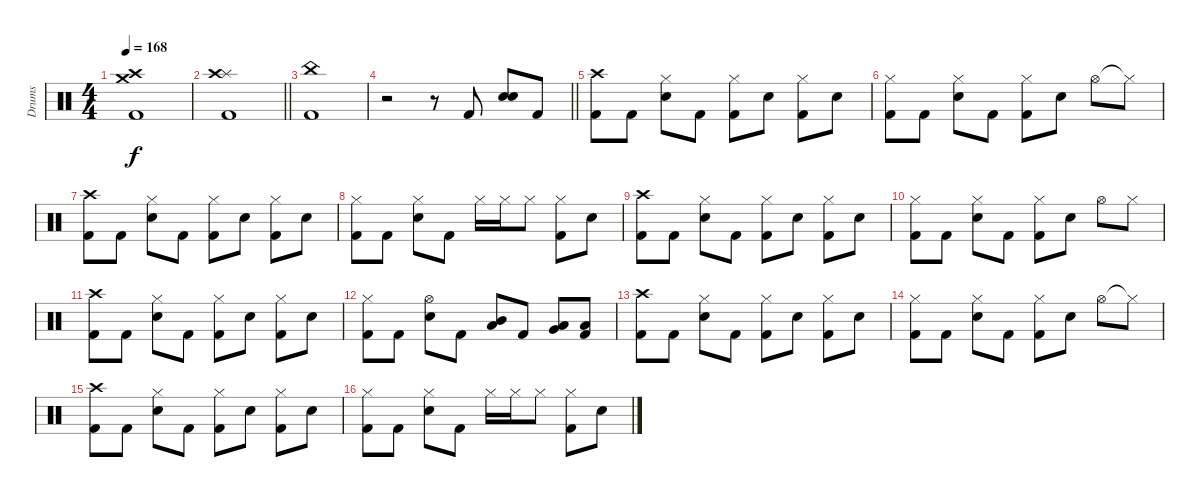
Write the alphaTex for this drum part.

\track ("Drums" "Drums") {instrument percussion}
\staff {score}
\articulation defaults
\ts (4 4)
\tempo 168
\clef neutral
\ks c
("Crash medium (hit)" "Crash high (hit)" "Kick (hit) 2").1{dy f} |
\barLineRight lightlight
("Splash (hit)" "Crash high (hit)" "Kick (hit) 2").1 |
("China (hit)" "Kick (hit) 2").1 |
\barLineRight lightlight
r.2 r.8 "Kick (hit) 2".8 ("Electric Snare (hit)" "Electric Snare (hit)").8 "Kick (hit) 2".8 |
\section ("" "")
("Crash high (hit)" "Kick (hit) 2").8 "Kick (hit) 2".8 ("Hi-Hat (closed)" "Electric Snare (hit)").8 "Kick (hit) 2".8 ("Hi-Hat (closed)" "Kick (hit) 2").8 "Electric Snare (hit)".8 ("Hi-Hat (closed)" "Kick (hit) 2").8 "Electric Snare (hit)".8 |
("Hi-Hat (closed)" "Kick (hit) 2").8 "Kick (hit) 2".8 ("Hi-Hat (closed)" "Electric Snare (hit)").8 "Kick (hit) 2".8 ("Hi-Hat (closed)" "Kick (hit) 2").8 "Electric Snare (hit)".8 "Hi-Hat (open)".8 "Hi-Hat (closed)"{t}.8 |
("Crash high (hit)" "Kick (hit) 2").8 "Kick (hit) 2".8 ("Hi-Hat (closed)" "Electric Snare (hit)").8 "Kick (hit) 2".8 ("Hi-Hat (closed)" "Kick (hit) 2").8 "Electric Snare (hit)".8 ("Hi-Hat (closed)" "Kick (hit) 2").8 "Electric Snare (hit)".8 |
("Hi-Hat (closed)" "Kick (hit) 2").8 "Kick (hit) 2".8 ("Hi-Hat (closed)" "Electric Snare (hit)").8 "Kick (hit) 2".8 "Hi-Hat (closed)".16 "Hi-Hat (closed)".16 "Hi-Hat (closed)".8 ("Hi-Hat (closed)" "Kick (hit) 2").8 "Electric Snare (hit)".8 |
("Crash high (hit)" "Kick (hit) 2").8 "Kick (hit) 2".8 ("Hi-Hat (closed)" "Electric Snare (hit)").8 "Kick (hit) 2".8 ("Hi-Hat (closed)" "Kick (hit) 2").8 "Electric Snare (hit)".8 ("Hi-Hat (closed)" "Kick (hit) 2").8 "Electric Snare (hit)".8 |
("Hi-Hat (closed)" "Kick (hit) 2").8 "Kick (hit) 2".8 ("Hi-Hat (closed)" "Electric Snare (hit)").8 "Kick (hit) 2".8 ("Hi-Hat (closed)" "Kick (hit) 2").8 "Electric Snare (hit)".8 "Hi-Hat (open)".8 "Hi-Hat (closed)".8 |
("Crash high (hit)" "Kick (hit) 2").8 "Kick (hit) 2".8 ("Hi-Hat (closed)" "Electric Snare (hit)").8 "Kick (hit) 2".8 ("Hi-Hat (closed)" "Kick (hit) 2").8 "Electric Snare (hit)".8 ("Hi-Hat (closed)" "Kick (hit) 2").8 "Electric Snare (hit)".8 |
("Hi-Hat (closed)" "Kick (hit) 2").8 "Kick (hit) 2".8 ("Hi-Hat (open)" "Electric Snare (hit)").8 "Kick (hit) 2".8 ("Mid Tom (hit)" "Low Tom (hit)").8 "Kick (hit) 2".8 ("Low Tom (hit)" "Very Low Tom (hit)").8 ("Low Floor Tom (hit)" "Kick (hit) 2").8 |
("Crash high (hit)" "Kick (hit) 2").8 "Kick (hit) 2".8 ("Hi-Hat (closed)" "Electric Snare (hit)").8 "Kick (hit) 2".8 ("Hi-Hat (closed)" "Kick (hit) 2").8 "Electric Snare (hit)".8 ("Hi-Hat (closed)" "Kick (hit) 2").8 "Electric Snare (hit)".8 |
("Hi-Hat (closed)" "Kick (hit) 2").8 "Kick (hit) 2".8 ("Hi-Hat (closed)" "Electric Snare (hit)").8 "Kick (hit) 2".8 ("Hi-Hat (closed)" "Kick (hit) 2").8 "Electric Snare (hit)".8 "Hi-Hat (open)".8 "Hi-Hat (closed)"{t}.8 |
("Crash high (hit)" "Kick (hit) 2").8 "Kick (hit) 2".8 ("Hi-Hat (closed)" "Electric Snare (hit)").8 "Kick (hit) 2".8 ("Hi-Hat (closed)" "Kick (hit) 2").8 "Electric Snare (hit)".8 ("Hi-Hat (closed)" "Kick (hit) 2").8 "Electric Snare (hit)".8 |
("Hi-Hat (closed)" "Kick (hit) 2").8 "Kick (hit) 2".8 ("Hi-Hat (closed)" "Electric Snare (hit)").8 "Kick (hit) 2".8 "Hi-Hat (closed)".16 "Hi-Hat (closed)".16 "Hi-Hat (closed)".8 ("Hi-Hat (closed)" "Kick (hit) 2").8 "Electric Snare (hit)".8
